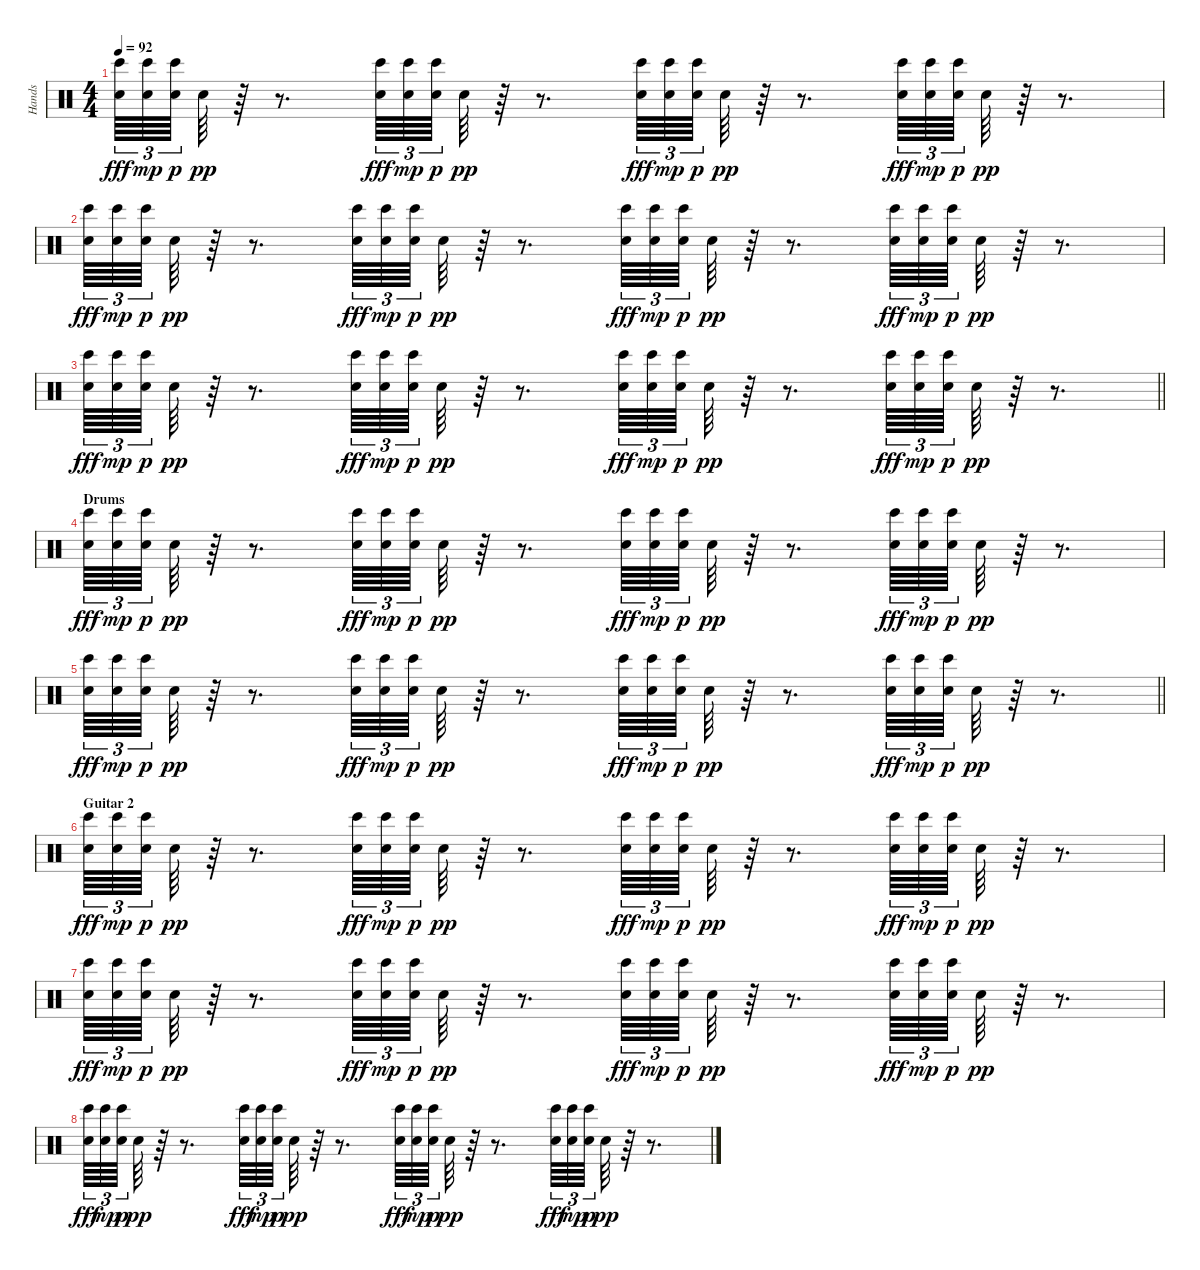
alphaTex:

\track ("Hands" "Hands") {instrument percussion}
\staff {score}
\articulation defaults
\ts (4 4)
\tempo 92
\clef neutral
\ks c
("Bongo High (hit)" "Hand Clap (hit)").64{tu (3 2) dy fff} ("Bongo High (hit)" "Hand Clap (hit)").64{tu (3 2) dy mp} ("Bongo High (hit)" "Hand Clap (hit)").64{tu (3 2) dy p} "Hand Clap (hit)".64{dy pp} r.64 r.8{d} ("Bongo High (hit)" "Hand Clap (hit)").64{tu (3 2) dy fff} ("Bongo High (hit)" "Hand Clap (hit)").64{tu (3 2) dy mp} ("Bongo High (hit)" "Hand Clap (hit)").64{tu (3 2) dy p} "Hand Clap (hit)".64{dy pp} r.64 r.8{d} ("Bongo High (hit)" "Hand Clap (hit)").64{tu (3 2) dy fff} ("Bongo High (hit)" "Hand Clap (hit)").64{tu (3 2) dy mp} ("Bongo High (hit)" "Hand Clap (hit)").64{tu (3 2) dy p} "Hand Clap (hit)".64{dy pp} r.64 r.8{d} ("Bongo High (hit)" "Hand Clap (hit)").64{tu (3 2) dy fff} ("Bongo High (hit)" "Hand Clap (hit)").64{tu (3 2) dy mp} ("Bongo High (hit)" "Hand Clap (hit)").64{tu (3 2) dy p} "Hand Clap (hit)".64{dy pp} r.64 r.8{d} |
("Bongo High (hit)" "Hand Clap (hit)").64{tu (3 2) dy fff} ("Bongo High (hit)" "Hand Clap (hit)").64{tu (3 2) dy mp} ("Bongo High (hit)" "Hand Clap (hit)").64{tu (3 2) dy p} "Hand Clap (hit)".64{dy pp} r.64 r.8{d} ("Bongo High (hit)" "Hand Clap (hit)").64{tu (3 2) dy fff} ("Bongo High (hit)" "Hand Clap (hit)").64{tu (3 2) dy mp} ("Bongo High (hit)" "Hand Clap (hit)").64{tu (3 2) dy p} "Hand Clap (hit)".64{dy pp} r.64 r.8{d} ("Bongo High (hit)" "Hand Clap (hit)").64{tu (3 2) dy fff} ("Bongo High (hit)" "Hand Clap (hit)").64{tu (3 2) dy mp} ("Bongo High (hit)" "Hand Clap (hit)").64{tu (3 2) dy p} "Hand Clap (hit)".64{dy pp} r.64 r.8{d} ("Bongo High (hit)" "Hand Clap (hit)").64{tu (3 2) dy fff} ("Bongo High (hit)" "Hand Clap (hit)").64{tu (3 2) dy mp} ("Bongo High (hit)" "Hand Clap (hit)").64{tu (3 2) dy p} "Hand Clap (hit)".64{dy pp} r.64 r.8{d} |
\barLineRight lightlight
("Bongo High (hit)" "Hand Clap (hit)").64{tu (3 2) dy fff} ("Bongo High (hit)" "Hand Clap (hit)").64{tu (3 2) dy mp} ("Bongo High (hit)" "Hand Clap (hit)").64{tu (3 2) dy p} "Hand Clap (hit)".64{dy pp} r.64 r.8{d} ("Bongo High (hit)" "Hand Clap (hit)").64{tu (3 2) dy fff} ("Bongo High (hit)" "Hand Clap (hit)").64{tu (3 2) dy mp} ("Bongo High (hit)" "Hand Clap (hit)").64{tu (3 2) dy p} "Hand Clap (hit)".64{dy pp} r.64 r.8{d} ("Bongo High (hit)" "Hand Clap (hit)").64{tu (3 2) dy fff} ("Bongo High (hit)" "Hand Clap (hit)").64{tu (3 2) dy mp} ("Bongo High (hit)" "Hand Clap (hit)").64{tu (3 2) dy p} "Hand Clap (hit)".64{dy pp} r.64 r.8{d} ("Bongo High (hit)" "Hand Clap (hit)").64{tu (3 2) dy fff} ("Bongo High (hit)" "Hand Clap (hit)").64{tu (3 2) dy mp} ("Bongo High (hit)" "Hand Clap (hit)").64{tu (3 2) dy p} "Hand Clap (hit)".64{dy pp} r.64 r.8{d} |
\section ("" "Drums")
("Bongo High (hit)" "Hand Clap (hit)").64{tu (3 2) dy fff} ("Bongo High (hit)" "Hand Clap (hit)").64{tu (3 2) dy mp} ("Bongo High (hit)" "Hand Clap (hit)").64{tu (3 2) dy p} "Hand Clap (hit)".64{dy pp} r.64 r.8{d} ("Bongo High (hit)" "Hand Clap (hit)").64{tu (3 2) dy fff} ("Bongo High (hit)" "Hand Clap (hit)").64{tu (3 2) dy mp} ("Bongo High (hit)" "Hand Clap (hit)").64{tu (3 2) dy p} "Hand Clap (hit)".64{dy pp} r.64 r.8{d} ("Bongo High (hit)" "Hand Clap (hit)").64{tu (3 2) dy fff} ("Bongo High (hit)" "Hand Clap (hit)").64{tu (3 2) dy mp} ("Bongo High (hit)" "Hand Clap (hit)").64{tu (3 2) dy p} "Hand Clap (hit)".64{dy pp} r.64 r.8{d} ("Bongo High (hit)" "Hand Clap (hit)").64{tu (3 2) dy fff} ("Bongo High (hit)" "Hand Clap (hit)").64{tu (3 2) dy mp} ("Bongo High (hit)" "Hand Clap (hit)").64{tu (3 2) dy p} "Hand Clap (hit)".64{dy pp} r.64 r.8{d} |
\barLineRight lightlight
("Bongo High (hit)" "Hand Clap (hit)").64{tu (3 2) dy fff} ("Bongo High (hit)" "Hand Clap (hit)").64{tu (3 2) dy mp} ("Bongo High (hit)" "Hand Clap (hit)").64{tu (3 2) dy p} "Hand Clap (hit)".64{dy pp} r.64 r.8{d} ("Bongo High (hit)" "Hand Clap (hit)").64{tu (3 2) dy fff} ("Bongo High (hit)" "Hand Clap (hit)").64{tu (3 2) dy mp} ("Bongo High (hit)" "Hand Clap (hit)").64{tu (3 2) dy p} "Hand Clap (hit)".64{dy pp} r.64 r.8{d} ("Bongo High (hit)" "Hand Clap (hit)").64{tu (3 2) dy fff} ("Bongo High (hit)" "Hand Clap (hit)").64{tu (3 2) dy mp} ("Bongo High (hit)" "Hand Clap (hit)").64{tu (3 2) dy p} "Hand Clap (hit)".64{dy pp} r.64 r.8{d} ("Bongo High (hit)" "Hand Clap (hit)").64{tu (3 2) dy fff} ("Bongo High (hit)" "Hand Clap (hit)").64{tu (3 2) dy mp} ("Bongo High (hit)" "Hand Clap (hit)").64{tu (3 2) dy p} "Hand Clap (hit)".64{dy pp} r.64 r.8{d} |
\section ("" "Guitar 2")
("Bongo High (hit)" "Hand Clap (hit)").64{tu (3 2) dy fff} ("Bongo High (hit)" "Hand Clap (hit)").64{tu (3 2) dy mp} ("Bongo High (hit)" "Hand Clap (hit)").64{tu (3 2) dy p} "Hand Clap (hit)".64{dy pp} r.64 r.8{d} ("Bongo High (hit)" "Hand Clap (hit)").64{tu (3 2) dy fff} ("Bongo High (hit)" "Hand Clap (hit)").64{tu (3 2) dy mp} ("Bongo High (hit)" "Hand Clap (hit)").64{tu (3 2) dy p} "Hand Clap (hit)".64{dy pp} r.64 r.8{d} ("Bongo High (hit)" "Hand Clap (hit)").64{tu (3 2) dy fff} ("Bongo High (hit)" "Hand Clap (hit)").64{tu (3 2) dy mp} ("Bongo High (hit)" "Hand Clap (hit)").64{tu (3 2) dy p} "Hand Clap (hit)".64{dy pp} r.64 r.8{d} ("Bongo High (hit)" "Hand Clap (hit)").64{tu (3 2) dy fff} ("Bongo High (hit)" "Hand Clap (hit)").64{tu (3 2) dy mp} ("Bongo High (hit)" "Hand Clap (hit)").64{tu (3 2) dy p} "Hand Clap (hit)".64{dy pp} r.64 r.8{d} |
("Bongo High (hit)" "Hand Clap (hit)").64{tu (3 2) dy fff} ("Bongo High (hit)" "Hand Clap (hit)").64{tu (3 2) dy mp} ("Bongo High (hit)" "Hand Clap (hit)").64{tu (3 2) dy p} "Hand Clap (hit)".64{dy pp} r.64 r.8{d} ("Bongo High (hit)" "Hand Clap (hit)").64{tu (3 2) dy fff} ("Bongo High (hit)" "Hand Clap (hit)").64{tu (3 2) dy mp} ("Bongo High (hit)" "Hand Clap (hit)").64{tu (3 2) dy p} "Hand Clap (hit)".64{dy pp} r.64 r.8{d} ("Bongo High (hit)" "Hand Clap (hit)").64{tu (3 2) dy fff} ("Bongo High (hit)" "Hand Clap (hit)").64{tu (3 2) dy mp} ("Bongo High (hit)" "Hand Clap (hit)").64{tu (3 2) dy p} "Hand Clap (hit)".64{dy pp} r.64 r.8{d} ("Bongo High (hit)" "Hand Clap (hit)").64{tu (3 2) dy fff} ("Bongo High (hit)" "Hand Clap (hit)").64{tu (3 2) dy mp} ("Bongo High (hit)" "Hand Clap (hit)").64{tu (3 2) dy p} "Hand Clap (hit)".64{dy pp} r.64 r.8{d} |
("Bongo High (hit)" "Hand Clap (hit)").64{tu (3 2) dy fff} ("Bongo High (hit)" "Hand Clap (hit)").64{tu (3 2) dy mp} ("Bongo High (hit)" "Hand Clap (hit)").64{tu (3 2) dy p} "Hand Clap (hit)".64{dy pp} r.64 r.8{d} ("Bongo High (hit)" "Hand Clap (hit)").64{tu (3 2) dy fff} ("Bongo High (hit)" "Hand Clap (hit)").64{tu (3 2) dy mp} ("Bongo High (hit)" "Hand Clap (hit)").64{tu (3 2) dy p} "Hand Clap (hit)".64{dy pp} r.64 r.8{d} ("Bongo High (hit)" "Hand Clap (hit)").64{tu (3 2) dy fff} ("Bongo High (hit)" "Hand Clap (hit)").64{tu (3 2) dy mp} ("Bongo High (hit)" "Hand Clap (hit)").64{tu (3 2) dy p} "Hand Clap (hit)".64{dy pp} r.64 r.8{d} ("Bongo High (hit)" "Hand Clap (hit)").64{tu (3 2) dy fff} ("Bongo High (hit)" "Hand Clap (hit)").64{tu (3 2) dy mp} ("Bongo High (hit)" "Hand Clap (hit)").64{tu (3 2) dy p} "Hand Clap (hit)".64{dy pp} r.64 r.8{d}
